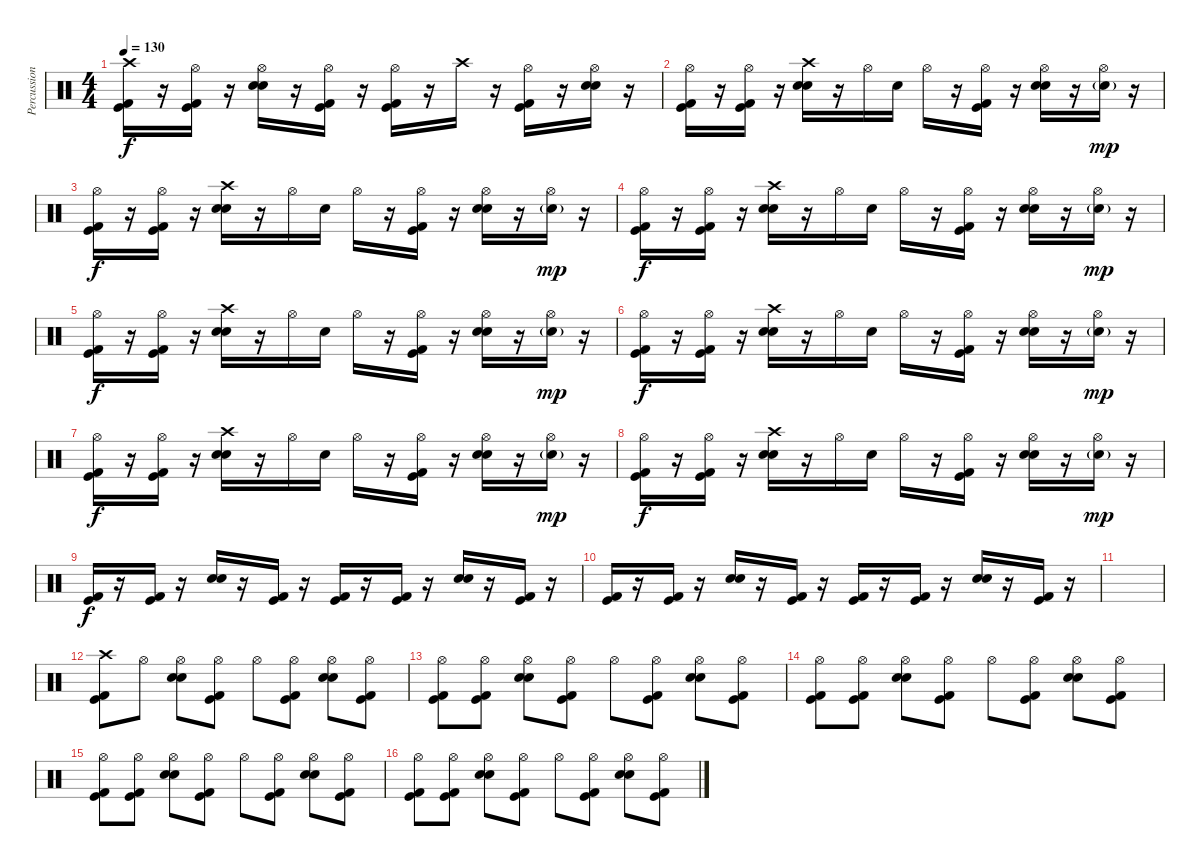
\track ("Percussions" "Percussion") {instrument percussion}
\staff {score}
\articulation defaults
\ts (4 4)
\tempo 130
\clef neutral
\ks c
("Crash high (hit)" "Kick (hit)" "Kick (hit) 2").16{dy f} r.16 ("Hi-Hat (open)" "Kick (hit)" "Kick (hit) 2").16 r.16 ("Hi-Hat (open)" "Snare (hit) 2" "Electric Snare (hit)").16 r.16 ("Hi-Hat (open)" "Kick (hit)" "Kick (hit) 2").16 r.16 ("Hi-Hat (open)" "Kick (hit)" "Kick (hit) 2").16 r.16 "Crash high (hit)".16 r.16 ("Hi-Hat (open)" "Kick (hit)" "Kick (hit) 2").16 r.16 ("Hi-Hat (open)" "Snare (hit) 2" "Electric Snare (hit)").16 r.16 |
("Hi-Hat (open)" "Kick (hit)" "Kick (hit) 2").16 r.16 ("Hi-Hat (open)" "Kick (hit)" "Kick (hit) 2").16 r.16 ("Crash high (hit)" "Snare (hit) 2" "Electric Snare (hit)").16 r.16 "Hi-Hat (open)".16 "Snare (hit) 2".16 "Hi-Hat (open)".16 r.16 ("Hi-Hat (open)" "Kick (hit)" "Kick (hit) 2").16 r.16 ("Hi-Hat (open)" "Snare (hit) 2" "Electric Snare (hit)").16 r.16 ("Hi-Hat (open)" "Electric Snare (hit)"{g}).16{dy mp} r.16 |
("Hi-Hat (open)" "Kick (hit)" "Kick (hit) 2").16{dy f} r.16 ("Hi-Hat (open)" "Kick (hit)" "Kick (hit) 2").16 r.16 ("Crash high (hit)" "Snare (hit) 2" "Electric Snare (hit)").16 r.16 "Hi-Hat (open)".16 "Snare (hit) 2".16 "Hi-Hat (open)".16 r.16 ("Hi-Hat (open)" "Kick (hit)" "Kick (hit) 2").16 r.16 ("Hi-Hat (open)" "Snare (hit) 2" "Electric Snare (hit)").16 r.16 ("Hi-Hat (open)" "Electric Snare (hit)"{g}).16{dy mp} r.16 |
("Hi-Hat (open)" "Kick (hit)" "Kick (hit) 2").16{dy f} r.16 ("Hi-Hat (open)" "Kick (hit)" "Kick (hit) 2").16 r.16 ("Crash high (hit)" "Snare (hit) 2" "Electric Snare (hit)").16 r.16 "Hi-Hat (open)".16 "Snare (hit) 2".16 "Hi-Hat (open)".16 r.16 ("Hi-Hat (open)" "Kick (hit)" "Kick (hit) 2").16 r.16 ("Hi-Hat (open)" "Snare (hit) 2" "Electric Snare (hit)").16 r.16 ("Hi-Hat (open)" "Electric Snare (hit)"{g}).16{dy mp} r.16 |
("Hi-Hat (open)" "Kick (hit)" "Kick (hit) 2").16{dy f} r.16 ("Hi-Hat (open)" "Kick (hit)" "Kick (hit) 2").16 r.16 ("Crash high (hit)" "Snare (hit) 2" "Electric Snare (hit)").16 r.16 "Hi-Hat (open)".16 "Snare (hit) 2".16 "Hi-Hat (open)".16 r.16 ("Hi-Hat (open)" "Kick (hit)" "Kick (hit) 2").16 r.16 ("Hi-Hat (open)" "Snare (hit) 2" "Electric Snare (hit)").16 r.16 ("Hi-Hat (open)" "Electric Snare (hit)"{g}).16{dy mp} r.16 |
("Hi-Hat (open)" "Kick (hit)" "Kick (hit) 2").16{dy f} r.16 ("Hi-Hat (open)" "Kick (hit)" "Kick (hit) 2").16 r.16 ("Crash high (hit)" "Snare (hit) 2" "Electric Snare (hit)").16 r.16 "Hi-Hat (open)".16 "Snare (hit) 2".16 "Hi-Hat (open)".16 r.16 ("Hi-Hat (open)" "Kick (hit)" "Kick (hit) 2").16 r.16 ("Hi-Hat (open)" "Snare (hit) 2" "Electric Snare (hit)").16 r.16 ("Hi-Hat (open)" "Electric Snare (hit)"{g}).16{dy mp} r.16 |
("Hi-Hat (open)" "Kick (hit)" "Kick (hit) 2").16{dy f} r.16 ("Hi-Hat (open)" "Kick (hit)" "Kick (hit) 2").16 r.16 ("Crash high (hit)" "Snare (hit) 2" "Electric Snare (hit)").16 r.16 "Hi-Hat (open)".16 "Snare (hit) 2".16 "Hi-Hat (open)".16 r.16 ("Hi-Hat (open)" "Kick (hit)" "Kick (hit) 2").16 r.16 ("Hi-Hat (open)" "Snare (hit) 2" "Electric Snare (hit)").16 r.16 ("Hi-Hat (open)" "Electric Snare (hit)"{g}).16{dy mp} r.16 |
("Hi-Hat (open)" "Kick (hit)" "Kick (hit) 2").16{dy f} r.16 ("Hi-Hat (open)" "Kick (hit)" "Kick (hit) 2").16 r.16 ("Crash high (hit)" "Snare (hit) 2" "Electric Snare (hit)").16 r.16 "Hi-Hat (open)".16 "Snare (hit) 2".16 "Hi-Hat (open)".16 r.16 ("Hi-Hat (open)" "Kick (hit)" "Kick (hit) 2").16 r.16 ("Hi-Hat (open)" "Snare (hit) 2" "Electric Snare (hit)").16 r.16 ("Hi-Hat (open)" "Electric Snare (hit)"{g}).16{dy mp} r.16 |
("Kick (hit)" "Kick (hit) 2").16{dy f} r.16 ("Kick (hit)" "Kick (hit) 2").16 r.16 ("Snare (hit) 2" "Electric Snare (hit)").16 r.16 ("Kick (hit)" "Kick (hit) 2").16 r.16 ("Kick (hit)" "Kick (hit) 2").16 r.16 ("Kick (hit)" "Kick (hit) 2").16 r.16 ("Snare (hit) 2" "Electric Snare (hit)").16 r.16 ("Kick (hit)" "Kick (hit) 2").16 r.16 |
("Kick (hit)" "Kick (hit) 2").16 r.16 ("Kick (hit)" "Kick (hit) 2").16 r.16 ("Snare (hit) 2" "Electric Snare (hit)").16 r.16 ("Kick (hit)" "Kick (hit) 2").16 r.16 ("Kick (hit)" "Kick (hit) 2").16 r.16 ("Kick (hit)" "Kick (hit) 2").16 r.16 ("Snare (hit) 2" "Electric Snare (hit)").16 r.16 ("Kick (hit)" "Kick (hit) 2").16 r.16 |
|
("Crash high (hit)" "Kick (hit)" "Kick (hit) 2").8 "Hi-Hat (open)".8 ("Hi-Hat (open)" "Snare (hit) 2" "Electric Snare (hit)").8 ("Hi-Hat (open)" "Kick (hit)" "Kick (hit) 2").8 "Hi-Hat (open)".8 ("Hi-Hat (open)" "Kick (hit)" "Kick (hit) 2").8 ("Hi-Hat (open)" "Snare (hit) 2" "Electric Snare (hit)").8 ("Hi-Hat (open)" "Kick (hit)" "Kick (hit) 2").8 |
("Hi-Hat (open)" "Kick (hit)" "Kick (hit) 2").8 ("Hi-Hat (open)" "Kick (hit)" "Kick (hit) 2").8 ("Hi-Hat (open)" "Snare (hit) 2" "Electric Snare (hit)").8 ("Hi-Hat (open)" "Kick (hit)" "Kick (hit) 2").8 "Hi-Hat (open)".8 ("Hi-Hat (open)" "Kick (hit)" "Kick (hit) 2").8 ("Hi-Hat (open)" "Snare (hit) 2" "Electric Snare (hit)").8 ("Hi-Hat (open)" "Kick (hit)" "Kick (hit) 2").8 |
("Hi-Hat (open)" "Kick (hit)" "Kick (hit) 2").8 ("Hi-Hat (open)" "Kick (hit)" "Kick (hit) 2").8 ("Hi-Hat (open)" "Snare (hit) 2" "Electric Snare (hit)").8 ("Hi-Hat (open)" "Kick (hit)" "Kick (hit) 2").8 "Hi-Hat (open)".8 ("Hi-Hat (open)" "Kick (hit)" "Kick (hit) 2").8 ("Hi-Hat (open)" "Snare (hit) 2" "Electric Snare (hit)").8 ("Hi-Hat (open)" "Kick (hit)" "Kick (hit) 2").8 |
("Hi-Hat (open)" "Kick (hit)" "Kick (hit) 2").8 ("Hi-Hat (open)" "Kick (hit)" "Kick (hit) 2").8 ("Hi-Hat (open)" "Snare (hit) 2" "Electric Snare (hit)").8 ("Hi-Hat (open)" "Kick (hit)" "Kick (hit) 2").8 "Hi-Hat (open)".8 ("Hi-Hat (open)" "Kick (hit)" "Kick (hit) 2").8 ("Hi-Hat (open)" "Snare (hit) 2" "Electric Snare (hit)").8 ("Hi-Hat (open)" "Kick (hit)" "Kick (hit) 2").8 |
("Hi-Hat (open)" "Kick (hit)" "Kick (hit) 2").8 ("Hi-Hat (open)" "Kick (hit)" "Kick (hit) 2").8 ("Hi-Hat (open)" "Snare (hit) 2" "Electric Snare (hit)").8 ("Hi-Hat (open)" "Kick (hit)" "Kick (hit) 2").8 "Hi-Hat (open)".8 ("Hi-Hat (open)" "Kick (hit)" "Kick (hit) 2").8 ("Hi-Hat (open)" "Snare (hit) 2" "Electric Snare (hit)").8 ("Hi-Hat (open)" "Kick (hit)" "Kick (hit) 2").8
